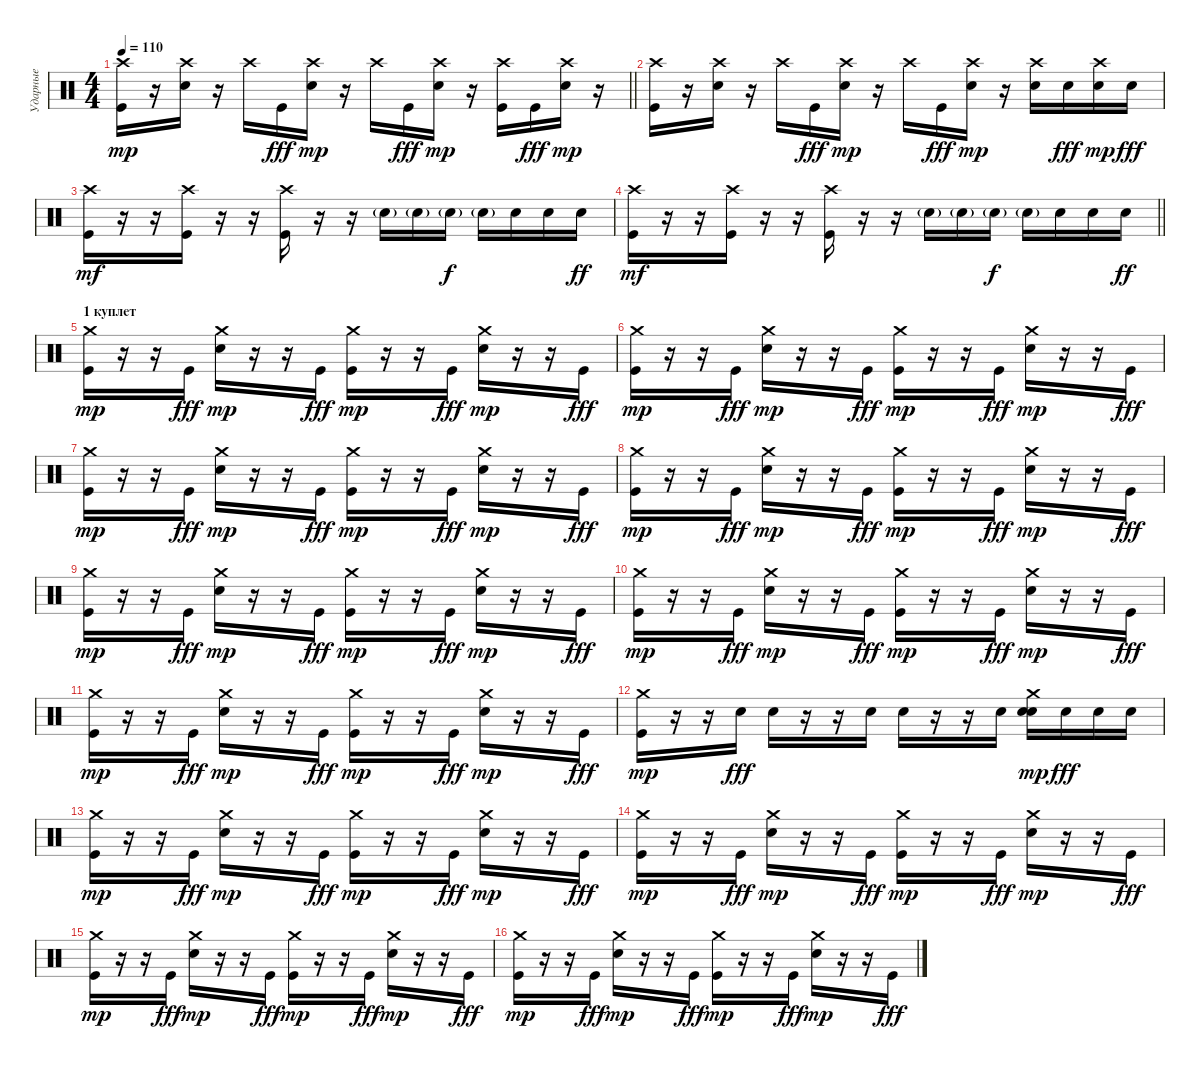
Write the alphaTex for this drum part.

\track ("Ударные" "Ударные") {instrument percussion}
\staff {score}
\articulation defaults
\ts (4 4)
\tempo 110
\clef neutral
\barLineRight lightlight
\ks c
("Kick (hit)" "Crash high (hit)").16{dy mp} r.16 ("Electric Snare (hit)" "Crash high (hit)").16 r.16 "Crash high (hit)".16 "Kick (hit)".16{dy fff} ("Electric Snare (hit)" "Crash high (hit)").16{dy mp} r.16 "Crash high (hit)".16 "Kick (hit)".16{dy fff} ("Electric Snare (hit)" "Crash high (hit)").16{dy mp} r.16 ("Kick (hit)" "Crash high (hit)").16 "Kick (hit)".16{dy fff} ("Electric Snare (hit)" "Crash high (hit)").16{dy mp} r.16 |
("Kick (hit)" "Crash high (hit)").16 r.16 ("Electric Snare (hit)" "Crash high (hit)").16 r.16 "Crash high (hit)".16 "Kick (hit)".16{dy fff} ("Electric Snare (hit)" "Crash high (hit)").16{dy mp} r.16 "Crash high (hit)".16 "Kick (hit)".16{dy fff} ("Electric Snare (hit)" "Crash high (hit)").16{dy mp} r.16 ("Electric Snare (hit)" "Crash high (hit)").16 "Electric Snare (hit)".16{dy fff} ("Electric Snare (hit)" "Crash high (hit)").16{dy mp} "Electric Snare (hit)".16{dy fff} |
("Kick (hit)" "Crash high (hit)").16{dy mf} r.16 r.16 ("Kick (hit)" "Crash high (hit)").16 r.16 r.16 ("Kick (hit)" "Crash high (hit)").16 r.16 r.16 "Electric Snare (hit)"{g}.16 "Electric Snare (hit)"{g}.16 "Electric Snare (hit)"{g}.16{dy f} "Electric Snare (hit)"{g}.16 "Electric Snare (hit)".16 "Electric Snare (hit)".16 "Electric Snare (hit)".16{dy ff} |
\barLineRight lightlight
("Kick (hit)" "Crash high (hit)").16{dy mf} r.16 r.16 ("Kick (hit)" "Crash high (hit)").16 r.16 r.16 ("Kick (hit)" "Crash high (hit)").16 r.16 r.16 "Electric Snare (hit)"{g}.16 "Electric Snare (hit)"{g}.16 "Electric Snare (hit)"{g}.16{dy f} "Electric Snare (hit)"{g}.16 "Electric Snare (hit)".16 "Electric Snare (hit)".16 "Electric Snare (hit)".16{dy ff} |
\section ("" "1 куплет")
("Kick (hit)" "Crash medium (hit)").16{dy mp} r.16 r.16 "Kick (hit)".16{dy fff} ("Electric Snare (hit)" "Crash medium (hit)").16{dy mp} r.16 r.16 "Kick (hit)".16{dy fff} ("Kick (hit)" "Crash medium (hit)").16{dy mp} r.16 r.16 "Kick (hit)".16{dy fff} ("Electric Snare (hit)" "Crash medium (hit)").16{dy mp} r.16 r.16 "Kick (hit)".16{dy fff} |
("Kick (hit)" "Crash medium (hit)").16{dy mp} r.16 r.16 "Kick (hit)".16{dy fff} ("Electric Snare (hit)" "Crash medium (hit)").16{dy mp} r.16 r.16 "Kick (hit)".16{dy fff} ("Kick (hit)" "Crash medium (hit)").16{dy mp} r.16 r.16 "Kick (hit)".16{dy fff} ("Electric Snare (hit)" "Crash medium (hit)").16{dy mp} r.16 r.16 "Kick (hit)".16{dy fff} |
("Kick (hit)" "Crash medium (hit)").16{dy mp} r.16 r.16 "Kick (hit)".16{dy fff} ("Electric Snare (hit)" "Crash medium (hit)").16{dy mp} r.16 r.16 "Kick (hit)".16{dy fff} ("Kick (hit)" "Crash medium (hit)").16{dy mp} r.16 r.16 "Kick (hit)".16{dy fff} ("Electric Snare (hit)" "Crash medium (hit)").16{dy mp} r.16 r.16 "Kick (hit)".16{dy fff} |
("Kick (hit)" "Crash medium (hit)").16{dy mp} r.16 r.16 "Kick (hit)".16{dy fff} ("Electric Snare (hit)" "Crash medium (hit)").16{dy mp} r.16 r.16 "Kick (hit)".16{dy fff} ("Kick (hit)" "Crash medium (hit)").16{dy mp} r.16 r.16 "Kick (hit)".16{dy fff} ("Electric Snare (hit)" "Crash medium (hit)").16{dy mp} r.16 r.16 "Kick (hit)".16{dy fff} |
("Kick (hit)" "Crash medium (hit)").16{dy mp} r.16 r.16 "Kick (hit)".16{dy fff} ("Electric Snare (hit)" "Crash medium (hit)").16{dy mp} r.16 r.16 "Kick (hit)".16{dy fff} ("Kick (hit)" "Crash medium (hit)").16{dy mp} r.16 r.16 "Kick (hit)".16{dy fff} ("Electric Snare (hit)" "Crash medium (hit)").16{dy mp} r.16 r.16 "Kick (hit)".16{dy fff} |
("Kick (hit)" "Crash medium (hit)").16{dy mp} r.16 r.16 "Kick (hit)".16{dy fff} ("Electric Snare (hit)" "Crash medium (hit)").16{dy mp} r.16 r.16 "Kick (hit)".16{dy fff} ("Kick (hit)" "Crash medium (hit)").16{dy mp} r.16 r.16 "Kick (hit)".16{dy fff} ("Electric Snare (hit)" "Crash medium (hit)").16{dy mp} r.16 r.16 "Kick (hit)".16{dy fff} |
("Kick (hit)" "Crash medium (hit)").16{dy mp} r.16 r.16 "Kick (hit)".16{dy fff} ("Electric Snare (hit)" "Crash medium (hit)").16{dy mp} r.16 r.16 "Kick (hit)".16{dy fff} ("Kick (hit)" "Crash medium (hit)").16{dy mp} r.16 r.16 "Kick (hit)".16{dy fff} ("Electric Snare (hit)" "Crash medium (hit)").16{dy mp} r.16 r.16 "Kick (hit)".16{dy fff} |
("Kick (hit)" "Crash medium (hit)").16{dy mp} r.16 r.16 "Electric Snare (hit)".16{dy fff} "Electric Snare (hit)".16 r.16 r.16 "Electric Snare (hit)".16 "Electric Snare (hit)".16 r.16 r.16 "Electric Snare (hit)".16 ("Electric Snare (hit)" "Electric Snare (hit)" "Crash medium (hit)").16{dy mp} "Electric Snare (hit)".16{dy fff} "Electric Snare (hit)".16 "Electric Snare (hit)".16 |
("Kick (hit)" "Crash medium (hit)").16{dy mp} r.16 r.16 "Kick (hit)".16{dy fff} ("Electric Snare (hit)" "Crash medium (hit)").16{dy mp} r.16 r.16 "Kick (hit)".16{dy fff} ("Kick (hit)" "Crash medium (hit)").16{dy mp} r.16 r.16 "Kick (hit)".16{dy fff} ("Electric Snare (hit)" "Crash medium (hit)").16{dy mp} r.16 r.16 "Kick (hit)".16{dy fff} |
("Kick (hit)" "Crash medium (hit)").16{dy mp} r.16 r.16 "Kick (hit)".16{dy fff} ("Electric Snare (hit)" "Crash medium (hit)").16{dy mp} r.16 r.16 "Kick (hit)".16{dy fff} ("Kick (hit)" "Crash medium (hit)").16{dy mp} r.16 r.16 "Kick (hit)".16{dy fff} ("Electric Snare (hit)" "Crash medium (hit)").16{dy mp} r.16 r.16 "Kick (hit)".16{dy fff} |
("Kick (hit)" "Crash medium (hit)").16{dy mp} r.16 r.16 "Kick (hit)".16{dy fff} ("Electric Snare (hit)" "Crash medium (hit)").16{dy mp} r.16 r.16 "Kick (hit)".16{dy fff} ("Kick (hit)" "Crash medium (hit)").16{dy mp} r.16 r.16 "Kick (hit)".16{dy fff} ("Electric Snare (hit)" "Crash medium (hit)").16{dy mp} r.16 r.16 "Kick (hit)".16{dy fff} |
("Kick (hit)" "Crash medium (hit)").16{dy mp} r.16 r.16 "Kick (hit)".16{dy fff} ("Electric Snare (hit)" "Crash medium (hit)").16{dy mp} r.16 r.16 "Kick (hit)".16{dy fff} ("Kick (hit)" "Crash medium (hit)").16{dy mp} r.16 r.16 "Kick (hit)".16{dy fff} ("Electric Snare (hit)" "Crash medium (hit)").16{dy mp} r.16 r.16 "Kick (hit)".16{dy fff}
